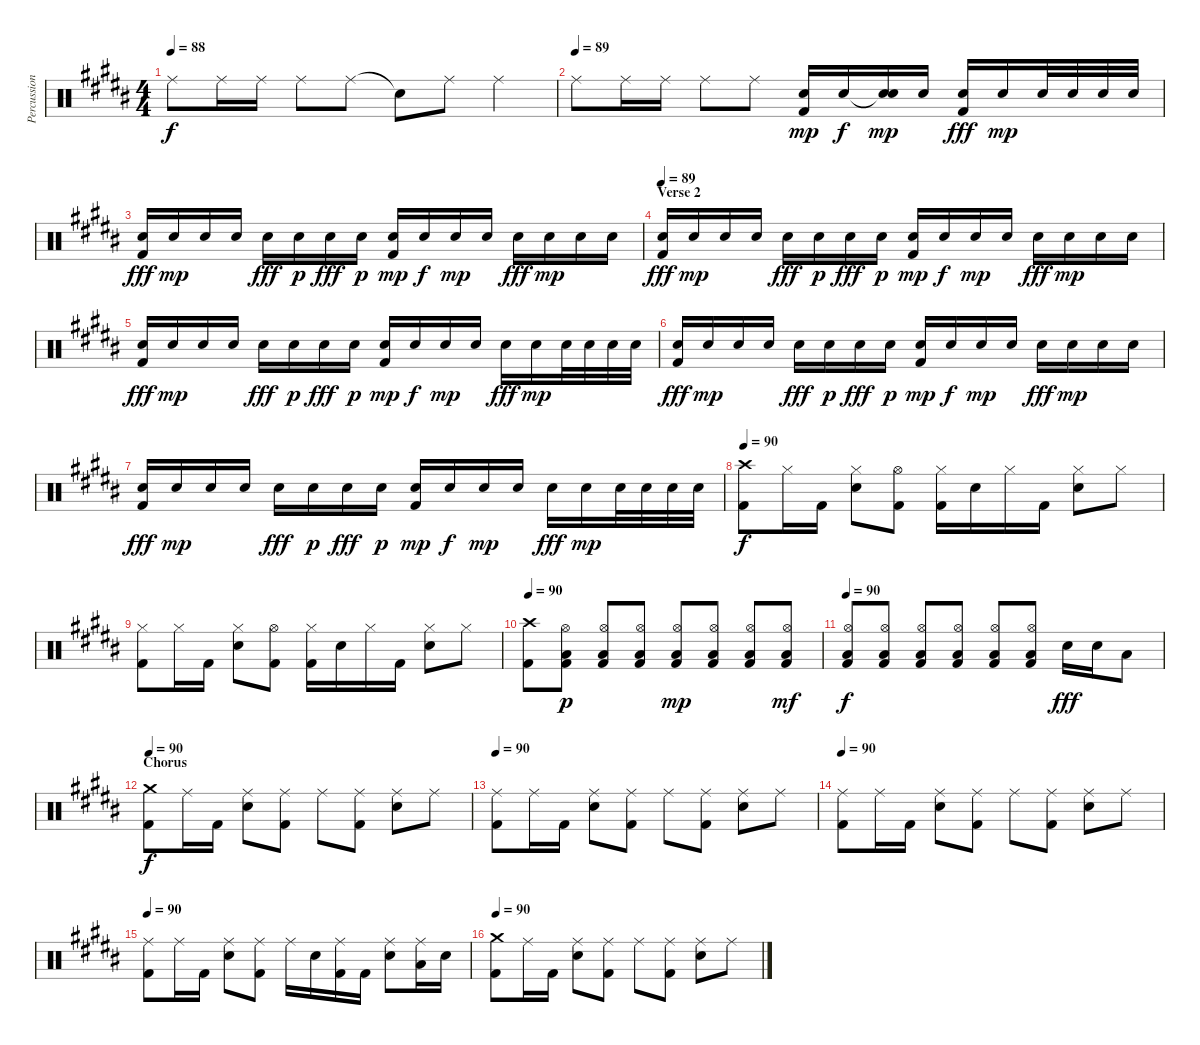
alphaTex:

\track ("Percussion" "Percussion") {instrument percussion}
\staff {score}
\articulation defaults
\ts (4 4)
\tempo 88
\clef neutral
\ks b "Ride (middle)".8{dy f} "Ride (middle)".16 "Ride (middle)".16 "Ride (middle)".8 "Ride (middle)".8 "Snare (hit)"{t}.8 "Ride (middle)".8 "Ride (middle)".4
|
\tempo (89)
"Ride (middle)".8{volume 8} "Ride (middle)".16 "Ride (middle)".16 "Ride (middle)".8 "Ride (middle)".8 ("Electric Snare (hit)" "Kick (hit) 2").16{dy mp} "Electric Snare (hit)".16{dy f} ("Snare (hit)"{t} "Electric Snare (hit)").16{dy mp} "Electric Snare (hit)".16 ("Electric Snare (hit)" "Kick (hit) 2").16{dy fff} "Electric Snare (hit)".16{dy mp} "Electric Snare (hit)".32 "Electric Snare (hit)".32 "Electric Snare (hit)".32 "Electric Snare (hit)".32 |
("Electric Snare (hit)" "Kick (hit) 2").16{dy fff} "Electric Snare (hit)".16{dy mp} "Electric Snare (hit)".16 "Electric Snare (hit)".16 "Electric Snare (hit)".16{dy fff} "Electric Snare (hit)".16{dy p} "Electric Snare (hit)".16{dy fff} "Electric Snare (hit)".16{dy p} ("Electric Snare (hit)" "Kick (hit) 2").16{dy mp} "Electric Snare (hit)".16{dy f} "Electric Snare (hit)".16{dy mp} "Electric Snare (hit)".16 "Electric Snare (hit)".16{dy fff} "Electric Snare (hit)".16{dy mp} "Electric Snare (hit)".16 "Electric Snare (hit)".16 |
\section ("" "Verse 2")
\tempo 89
("Electric Snare (hit)" "Kick (hit) 2").16{dy fff volume 8} "Electric Snare (hit)".16{dy mp} "Electric Snare (hit)".16 "Electric Snare (hit)".16 "Electric Snare (hit)".16{dy fff} "Electric Snare (hit)".16{dy p} "Electric Snare (hit)".16{dy fff} "Electric Snare (hit)".16{dy p} ("Electric Snare (hit)" "Kick (hit) 2").16{dy mp} "Electric Snare (hit)".16{dy f} "Electric Snare (hit)".16{dy mp} "Electric Snare (hit)".16 "Electric Snare (hit)".16{dy fff} "Electric Snare (hit)".16{dy mp} "Electric Snare (hit)".16 "Electric Snare (hit)".16 |
("Electric Snare (hit)" "Kick (hit) 2").16{dy fff} "Electric Snare (hit)".16{dy mp} "Electric Snare (hit)".16 "Electric Snare (hit)".16 "Electric Snare (hit)".16{dy fff} "Electric Snare (hit)".16{dy p} "Electric Snare (hit)".16{dy fff} "Electric Snare (hit)".16{dy p} ("Electric Snare (hit)" "Kick (hit) 2").16{dy mp} "Electric Snare (hit)".16{dy f} "Electric Snare (hit)".16{dy mp} "Electric Snare (hit)".16 "Electric Snare (hit)".16{dy fff} "Electric Snare (hit)".16{dy mp} "Electric Snare (hit)".32 "Electric Snare (hit)".32 "Electric Snare (hit)".32 "Electric Snare (hit)".32 |
("Electric Snare (hit)" "Kick (hit) 2").16{dy fff volume 8} "Electric Snare (hit)".16{dy mp} "Electric Snare (hit)".16 "Electric Snare (hit)".16 "Electric Snare (hit)".16{dy fff} "Electric Snare (hit)".16{dy p} "Electric Snare (hit)".16{dy fff} "Electric Snare (hit)".16{dy p} ("Electric Snare (hit)" "Kick (hit) 2").16{dy mp} "Electric Snare (hit)".16{dy f} "Electric Snare (hit)".16{dy mp} "Electric Snare (hit)".16 "Electric Snare (hit)".16{dy fff} "Electric Snare (hit)".16{dy mp} "Electric Snare (hit)".16 "Electric Snare (hit)".16 |
("Electric Snare (hit)" "Kick (hit) 2").16{dy fff} "Electric Snare (hit)".16{dy mp} "Electric Snare (hit)".16 "Electric Snare (hit)".16 "Electric Snare (hit)".16{dy fff} "Electric Snare (hit)".16{dy p} "Electric Snare (hit)".16{dy fff} "Electric Snare (hit)".16{dy p} ("Electric Snare (hit)" "Kick (hit) 2").16{dy mp} "Electric Snare (hit)".16{dy f} "Electric Snare (hit)".16{dy mp} "Electric Snare (hit)".16 "Electric Snare (hit)".16{dy fff} "Electric Snare (hit)".16{dy mp} "Electric Snare (hit)".32 "Electric Snare (hit)".32 "Electric Snare (hit)".32 "Electric Snare (hit)".32 |
\tempo 90
("Crash high (hit)" "Kick (hit) 2").8{dy f volume 14} "Hi-Hat (closed)".16 "Kick (hit) 2".16 ("Hi-Hat (closed)" "Electric Snare (hit)").8 ("Hi-Hat (open)" "Kick (hit) 2").8 ("Hi-Hat (closed)" "Kick (hit) 2").16 "Electric Snare (hit)".16 "Hi-Hat (closed)".16 "Kick (hit) 2".16 ("Hi-Hat (closed)" "Electric Snare (hit)").8 "Hi-Hat (closed)".8 |
("Hi-Hat (closed)" "Kick (hit) 2").8 "Hi-Hat (closed)".16 "Kick (hit) 2".16 ("Hi-Hat (closed)" "Electric Snare (hit)").8 ("Hi-Hat (open)" "Kick (hit) 2").8 ("Hi-Hat (closed)" "Kick (hit) 2").16 "Electric Snare (hit)".16 "Hi-Hat (closed)".16 "Kick (hit) 2".16 ("Hi-Hat (closed)" "Electric Snare (hit)").8 "Hi-Hat (closed)".8 |
\tempo 90
("Crash high (hit)" "Kick (hit) 2").8 ("Hi-Hat (open)" "Low Tom (hit)" "Kick (hit) 2").8{dy p} ("Hi-Hat (open)" "Low Tom (hit)" "Kick (hit) 2").8 ("Hi-Hat (open)" "Low Tom (hit)" "Kick (hit) 2").8 ("Hi-Hat (open)" "Low Tom (hit)" "Kick (hit) 2").8{dy mp} ("Hi-Hat (open)" "Low Tom (hit)" "Kick (hit) 2").8 ("Hi-Hat (open)" "Low Tom (hit)" "Kick (hit) 2").8 ("Hi-Hat (open)" "Low Tom (hit)" "Kick (hit) 2").8{dy mf} |
\tempo 90
("Hi-Hat (open)" "Low Tom (hit)" "Kick (hit) 2").8{dy f} ("Hi-Hat (open)" "Low Tom (hit)" "Kick (hit) 2").8 ("Hi-Hat (open)" "Low Tom (hit)" "Kick (hit) 2").8 ("Hi-Hat (open)" "Low Tom (hit)" "Kick (hit) 2").8 ("Hi-Hat (open)" "Low Tom (hit)" "Kick (hit) 2").8 ("Hi-Hat (open)" "Low Tom (hit)" "Kick (hit) 2").8 "Electric Snare (hit)".16{dy fff} "Electric Snare (hit)".16 "Low Tom (hit)".8 |
\section ("" "Chorus")
\tempo 90
("Crash medium (hit)" "Kick (hit) 2").8{dy f} "Ride (middle)".16 "Kick (hit) 2".16 ("Ride (middle)" "Electric Snare (hit)").8 ("Ride (middle)" "Kick (hit) 2").8 "Ride (middle)".8 ("Ride (middle)" "Kick (hit) 2").8 ("Ride (middle)" "Electric Snare (hit)").8 "Ride (middle)".8 |
\tempo 90
("Ride (middle)" "Kick (hit) 2").8 "Ride (middle)".16 "Kick (hit) 2".16 ("Ride (middle)" "Electric Snare (hit)").8 ("Ride (middle)" "Kick (hit) 2").8 "Ride (middle)".8 ("Ride (middle)" "Kick (hit) 2").8 ("Ride (middle)" "Electric Snare (hit)").8 "Ride (middle)".8 |
\tempo 90
("Ride (middle)" "Kick (hit) 2").8 "Ride (middle)".16 "Kick (hit) 2".16 ("Ride (middle)" "Electric Snare (hit)").8 ("Ride (middle)" "Kick (hit) 2").8 "Ride (middle)".8 ("Ride (middle)" "Kick (hit) 2").8 ("Ride (middle)" "Electric Snare (hit)").8 "Ride (middle)".8 |
\tempo 90
("Ride (middle)" "Kick (hit) 2").8 "Ride (middle)".16 "Kick (hit) 2".16 ("Ride (middle)" "Electric Snare (hit)").8 ("Ride (middle)" "Kick (hit) 2").8 "Ride (middle)".16 "Electric Snare (hit)".16 ("Ride (middle)" "Kick (hit) 2").16 "Kick (hit) 2".16 ("Ride (middle)" "Electric Snare (hit)").8 ("Ride (middle)" "Low Tom (hit)").16 "Electric Snare (hit)".16 |
\tempo 90
("Crash medium (hit)" "Kick (hit) 2").8 "Ride (middle)".16 "Kick (hit) 2".16 ("Ride (middle)" "Electric Snare (hit)").8 ("Ride (middle)" "Kick (hit) 2").8 "Ride (middle)".8 ("Ride (middle)" "Kick (hit) 2").8 ("Ride (middle)" "Electric Snare (hit)").8 "Ride (middle)".8
